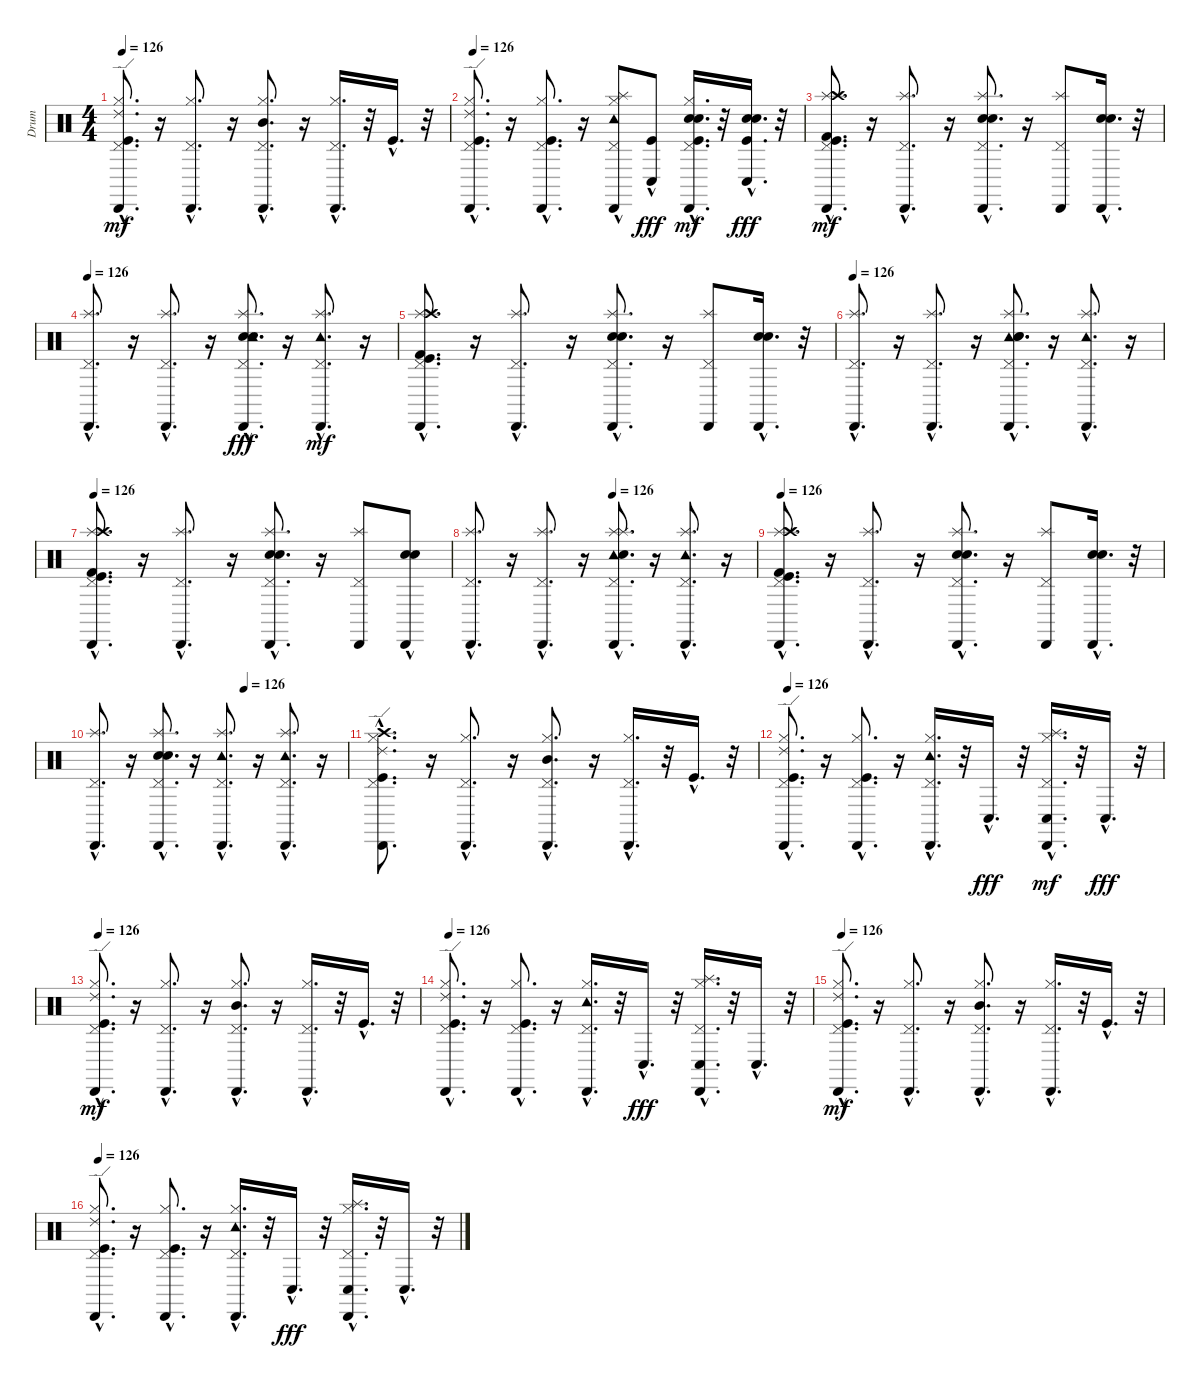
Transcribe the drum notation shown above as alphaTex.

\track ("Drum" "Drum") {instrument percussion}
\staff {score}
\articulation defaults
\ts (4 4)
\tempo 126
\clef neutral
\ks c
("Ride (edge) 2"{hac} "Cabasa (hit)"{hac} "Hi-Hat (closed)"{hac} "Kick (hit)"{hac} "Pedal Hi-Hat (hit)"{hac}).8{d dy mf} r.16 ("Cabasa (hit)"{hac} "Hi-Hat (closed)"{hac} "Pedal Hi-Hat (hit)"{hac}).8{d} r.16 ("Cabasa (hit)"{hac} "Hi-Hat (closed)"{hac} "Pedal Hi-Hat (hit)"{hac} "Mid Tom (hit)"{hac}).8{d} r.16 ("Cabasa (hit)"{hac} "Hi-Hat (closed)"{hac} "Pedal Hi-Hat (hit)"{hac}).16{d} r.32 "Kick (hit)"{hac}.16{d} r.32 |
\tempo 126
("Ride (edge) 2"{hac} "Cabasa (hit)"{hac} "Hi-Hat (closed)"{hac} "Kick (hit)"{hac} "Pedal Hi-Hat (hit)"{hac}).8{d} r.16 ("Cabasa (hit)"{hac} "Hi-Hat (closed)"{hac} "Kick (hit)"{hac} "Pedal Hi-Hat (hit)"{hac}).8{d} r.16 ("Splash (hit)" "Tambourine (hit)"{hac} "Hi-Hat (closed)"{hac} "Pedal Hi-Hat (hit)"{hac} "Cabasa (hit)"{hac}).8 ("Kick (hit)"{hac} "Conga low (hit)"{hac}).8{dy fff} ("Kick (hit)"{hac} "Electric Snare (hit)"{hac} "Snare (hit) 2"{hac} "Cabasa (hit)"{hac} "Hi-Hat (closed)"{hac} "Pedal Hi-Hat (hit)"{hac}).16{d dy mf} r.32 ("Kick (hit)"{hac} "Electric Snare (hit)"{hac} "Snare (hit) 2"{hac} "Conga low (hit)"{hac}).16{d dy fff} r.32 |
("Splash (hit)"{hac} "Kick (hit) 2"{hac} "Cabasa (hit)"{hac} "Crash high (hit)"{hac} "Pedal Hi-Hat (hit)"{hac} "Kick (hit)"{hac}).8{d dy mf} r.16 ("Splash (hit)"{hac} "Cabasa (hit)"{hac} "Pedal Hi-Hat (hit)"{hac}).8{d} r.16 ("Splash (hit)"{hac} "Electric Snare (hit)"{hac} "Cabasa (hit)"{hac} "Snare (hit) 2"{hac} "Pedal Hi-Hat (hit)"{hac}).8{d} r.16 ("Splash (hit)" "Cabasa (hit)" "Pedal Hi-Hat (hit)").8 ("Electric Snare (hit)"{hac} "Cabasa (hit)"{hac} "Snare (hit) 2"{hac}).16{d} r.32 |
\tempo 126
("Splash (hit)"{hac} "Cabasa (hit)"{hac} "Pedal Hi-Hat (hit)"{hac}).8{d} r.16 ("Splash (hit)"{hac} "Cabasa (hit)"{hac} "Pedal Hi-Hat (hit)"{hac}).8{d} r.16 ("Electric Snare (hit)"{hac} "Snare (hit) 2"{hac} "Splash (hit)"{hac} "Cabasa (hit)"{hac} "Pedal Hi-Hat (hit)"{hac} "Tambourine (hit)"{hac}).8{d dy fff} r.16 ("Splash (hit)"{hac} "Cabasa (hit)"{hac} "Tambourine (hit)"{hac} "Pedal Hi-Hat (hit)"{hac}).8{d dy mf} r.16 |
("Splash (hit)"{hac} "Kick (hit)"{hac} "Pedal Hi-Hat (hit)"{hac} "Crash high (hit)"{hac} "Cabasa (hit)"{hac} "Kick (hit) 2"{hac}).8{d} r.16 ("Splash (hit)"{hac} "Pedal Hi-Hat (hit)"{hac} "Cabasa (hit)"{hac}).8{d} r.16 ("Splash (hit)"{hac} "Pedal Hi-Hat (hit)"{hac} "Snare (hit) 2"{hac} "Cabasa (hit)"{hac} "Electric Snare (hit)"{hac}).8{d} r.16 ("Splash (hit)" "Pedal Hi-Hat (hit)" "Cabasa (hit)").8 ("Snare (hit) 2"{hac} "Cabasa (hit)"{hac} "Electric Snare (hit)"{hac}).16{d} r.32 |
\tempo 126
("Splash (hit)"{hac} "Pedal Hi-Hat (hit)"{hac} "Cabasa (hit)"{hac}).8{d} r.16 ("Splash (hit)"{hac} "Pedal Hi-Hat (hit)"{hac} "Cabasa (hit)"{hac}).8{d} r.16 ("Tambourine (hit)"{hac} "Pedal Hi-Hat (hit)"{hac} "Cabasa (hit)"{hac} "Splash (hit)"{hac} "Snare (hit) 2"{hac} "Electric Snare (hit)"{hac}).8{d} r.16 ("Pedal Hi-Hat (hit)"{hac} "Tambourine (hit)"{hac} "Cabasa (hit)"{hac} "Splash (hit)"{hac}).8{d} r.16 |
\tempo 126
("Splash (hit)"{hac} "Kick (hit)"{hac} "Pedal Hi-Hat (hit)"{hac} "Crash high (hit)"{hac} "Cabasa (hit)"{hac} "Kick (hit) 2"{hac}).8{d} r.16 ("Splash (hit)"{hac} "Pedal Hi-Hat (hit)"{hac} "Cabasa (hit)"{hac}).8{d} r.16 ("Splash (hit)"{hac} "Pedal Hi-Hat (hit)"{hac} "Snare (hit) 2"{hac} "Cabasa (hit)"{hac} "Electric Snare (hit)"{hac}).8{d} r.16 ("Splash (hit)" "Pedal Hi-Hat (hit)" "Cabasa (hit)").8 ("Snare (hit) 2"{hac} "Cabasa (hit)"{hac} "Electric Snare (hit)"{hac}).8 |
\tempo (126 0.5)
("Splash (hit)"{hac} "Pedal Hi-Hat (hit)"{hac} "Cabasa (hit)"{hac}).8{d} r.16 ("Splash (hit)"{hac} "Pedal Hi-Hat (hit)"{hac} "Cabasa (hit)"{hac}).8{d} r.16 ("Splash (hit)"{hac} "Pedal Hi-Hat (hit)"{hac} "Cabasa (hit)"{hac} "Tambourine (hit)"{hac} "Electric Snare (hit)"{hac} "Splash (hit)"{hac}).8{d} r.16 ("Pedal Hi-Hat (hit)"{hac} "Tambourine (hit)"{hac} "Splash (hit)"{hac} "Cabasa (hit)"{hac}).8{d} r.16 |
\tempo 126
("Splash (hit)"{hac} "Kick (hit)"{hac} "Pedal Hi-Hat (hit)"{hac} "Crash high (hit)"{hac} "Cabasa (hit)"{hac} "Kick (hit) 2"{hac}).8{d} r.16 ("Splash (hit)"{hac} "Pedal Hi-Hat (hit)"{hac} "Cabasa (hit)"{hac}).8{d} r.16 ("Splash (hit)"{hac} "Pedal Hi-Hat (hit)"{hac} "Snare (hit) 2"{hac} "Cabasa (hit)"{hac} "Electric Snare (hit)"{hac}).8{d} r.16 ("Splash (hit)" "Pedal Hi-Hat (hit)" "Cabasa (hit)").8 ("Snare (hit) 2"{hac} "Cabasa (hit)"{hac} "Electric Snare (hit)"{hac}).16{d} r.32 |
\tempo (126 0.59375)
("Splash (hit)"{hac} "Pedal Hi-Hat (hit)"{hac} "Cabasa (hit)"{hac}).8{d} r.16 ("Splash (hit)"{hac} "Snare (hit) 2"{hac} "Electric Snare (hit)"{hac} "Pedal Hi-Hat (hit)"{hac} "Cabasa (hit)"{hac}).8{d} r.16 ("Tambourine (hit)"{hac} "Pedal Hi-Hat (hit)"{hac} "Cabasa (hit)"{hac} "Splash (hit)"{hac}).8{d} r.16 ("Pedal Hi-Hat (hit)"{hac} "Tambourine (hit)"{hac} "Cabasa (hit)"{hac} "Splash (hit)"{hac}).8{d} r.16 |
("Ride (edge) 2"{hac} "Cabasa (hit)"{hac} "Kick (hit)"{hac} "Pedal Hi-Hat (hit)"{hac} "Hi-Hat (closed)"{hac} "Crash high (hit)"{hac}).8{d} r.16 ("Hi-Hat (closed)"{hac} "Pedal Hi-Hat (hit)"{hac} "Cabasa (hit)"{hac}).8{d} r.16 ("Pedal Hi-Hat (hit)"{hac} "Cabasa (hit)"{hac} "Mid Tom (hit)"{hac} "Hi-Hat (closed)"{hac}).8{d} r.16 ("Hi-Hat (closed)"{hac} "Pedal Hi-Hat (hit)"{hac} "Cabasa (hit)"{hac}).16{d} r.32 "Kick (hit)"{hac}.16{d} r.32 |
\tempo 126
("Kick (hit)"{hac} "Pedal Hi-Hat (hit)"{hac} "Cabasa (hit)"{hac} "Ride (edge) 2"{hac} "Hi-Hat (closed)"{hac}).8{d} r.16 ("Pedal Hi-Hat (hit)"{hac} "Cabasa (hit)"{hac} "Hi-Hat (closed)"{hac} "Kick (hit)"{hac}).8{d} r.16 ("Cabasa (hit)"{hac} "Tambourine (hit)"{hac} "Hi-Hat (closed)"{hac} "Pedal Hi-Hat (hit)"{hac}).16{d} r.32 "Conga low (hit)"{hac}.16{d dy fff} r.32 ("Hi-Hat (closed)"{hac} "Cabasa (hit)"{hac} "Splash (hit)"{hac} "Conga low (hit)"{hac} "Pedal Hi-Hat (hit)"{hac}).16{d dy mf} r.32 "Conga low (hit)"{hac}.16{d dy fff} r.32 |
\tempo 126
("Cabasa (hit)"{hac} "Kick (hit)"{hac} "Pedal Hi-Hat (hit)"{hac} "Hi-Hat (closed)"{hac} "Ride (edge) 2"{hac}).8{d dy mf} r.16 ("Pedal Hi-Hat (hit)"{hac} "Hi-Hat (closed)"{hac} "Cabasa (hit)"{hac}).8{d} r.16 ("Mid Tom (hit)"{hac} "Cabasa (hit)"{hac} "Pedal Hi-Hat (hit)"{hac} "Hi-Hat (closed)"{hac}).8{d} r.16 ("Pedal Hi-Hat (hit)"{hac} "Cabasa (hit)"{hac} "Hi-Hat (closed)"{hac}).16{d} r.32 "Kick (hit)"{hac}.16{d} r.32 |
\tempo 126
("Pedal Hi-Hat (hit)"{hac} "Kick (hit)"{hac} "Cabasa (hit)"{hac} "Hi-Hat (closed)"{hac} "Ride (edge) 2"{hac}).8{d} r.16 ("Cabasa (hit)"{hac} "Hi-Hat (closed)"{hac} "Pedal Hi-Hat (hit)"{hac} "Kick (hit)"{hac}).8{d} r.16 ("Pedal Hi-Hat (hit)"{hac} "Cabasa (hit)"{hac} "Tambourine (hit)"{hac} "Hi-Hat (closed)"{hac}).16{d} r.32 "Conga low (hit)"{hac}.16{d dy fff} r.32 ("Cabasa (hit)"{hac} "Pedal Hi-Hat (hit)"{hac} "Hi-Hat (closed)"{hac} "Splash (hit)"{hac} "Conga low (hit)"{hac}).16{d} r.32 "Conga low (hit)"{hac}.16{d} r.32 |
\tempo 126
("Hi-Hat (closed)"{hac} "Pedal Hi-Hat (hit)"{hac} "Cabasa (hit)"{hac} "Kick (hit)"{hac} "Ride (edge) 2"{hac}).8{d dy mf} r.16 ("Hi-Hat (closed)"{hac} "Cabasa (hit)"{hac} "Pedal Hi-Hat (hit)"{hac}).8{d} r.16 ("Pedal Hi-Hat (hit)"{hac} "Cabasa (hit)"{hac} "Hi-Hat (closed)"{hac} "Mid Tom (hit)"{hac}).8{d} r.16 ("Pedal Hi-Hat (hit)"{hac} "Hi-Hat (closed)"{hac} "Cabasa (hit)"{hac}).16{d} r.32 "Kick (hit)"{hac}.16{d} r.32 |
\tempo 126
("Ride (edge) 2"{hac} "Cabasa (hit)"{hac} "Hi-Hat (closed)"{hac} "Kick (hit)"{hac} "Pedal Hi-Hat (hit)"{hac}).8{d} r.16 ("Cabasa (hit)"{hac} "Hi-Hat (closed)"{hac} "Kick (hit)"{hac} "Pedal Hi-Hat (hit)"{hac}).8{d} r.16 ("Hi-Hat (closed)"{hac} "Pedal Hi-Hat (hit)"{hac} "Cabasa (hit)"{hac} "Tambourine (hit)"{hac}).16{d} r.32 "Conga low (hit)"{hac}.16{d dy fff} r.32 ("Splash (hit)"{hac} "Cabasa (hit)"{hac} "Hi-Hat (closed)"{hac} "Pedal Hi-Hat (hit)"{hac} "Conga low (hit)"{hac}).16{d} r.32 "Conga low (hit)"{hac}.16{d} r.32
